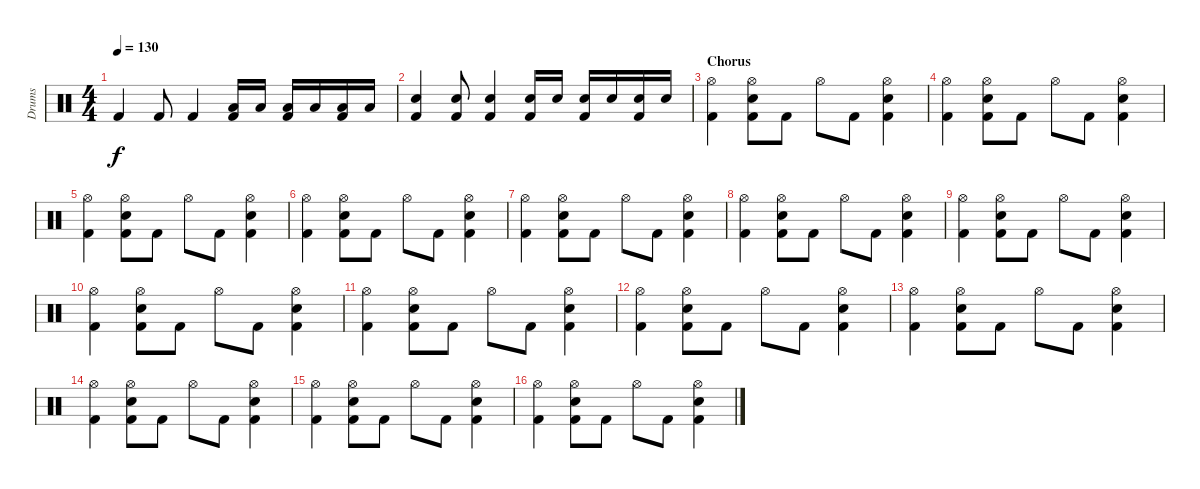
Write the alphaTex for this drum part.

\track ("Drums" "Drums") {instrument percussion}
\staff {score}
\articulation defaults
\ts (4 4)
\tempo 130
\clef neutral
\ks c "Kick (hit) 2".4{dy f} "Kick (hit) 2".8 "Kick (hit) 2".4
("Kick (hit) 2" "Low Tom (hit)").16 "Low Tom (hit)".16 ("Kick (hit) 2" "Low Tom (hit)").16 "Low Tom (hit)".16 ("Kick (hit) 2" "Low Tom (hit)").16 "Low Tom (hit)".16 |
("Kick (hit) 2" "Snare (hit) 2").4 ("Kick (hit) 2" "Snare (hit) 2").8 ("Kick (hit) 2" "Snare (hit) 2").4 ("Kick (hit) 2" "Snare (hit) 2").16 "Snare (hit) 2".16 ("Kick (hit) 2" "Snare (hit) 2").16 "Snare (hit) 2".16 ("Kick (hit) 2" "Snare (hit) 2").16 "Snare (hit) 2".16 |
\section ("" "Chorus")
("Kick (hit) 2" "Hi-Hat (open)").4 ("Kick (hit) 2" "Hi-Hat (open)" "Snare (hit) 2").8 "Kick (hit) 2".8 "Hi-Hat (open)".8 "Kick (hit) 2".8 ("Kick (hit) 2" "Hi-Hat (open)" "Snare (hit) 2").4 |
("Kick (hit) 2" "Hi-Hat (open)").4 ("Kick (hit) 2" "Hi-Hat (open)" "Snare (hit) 2").8 "Kick (hit) 2".8 "Hi-Hat (open)".8 "Kick (hit) 2".8 ("Kick (hit) 2" "Hi-Hat (open)" "Snare (hit) 2").4 |
("Kick (hit) 2" "Hi-Hat (open)").4 ("Kick (hit) 2" "Hi-Hat (open)" "Snare (hit) 2").8 "Kick (hit) 2".8 "Hi-Hat (open)".8 "Kick (hit) 2".8 ("Kick (hit) 2" "Hi-Hat (open)" "Snare (hit) 2").4 |
("Kick (hit) 2" "Hi-Hat (open)").4 ("Kick (hit) 2" "Hi-Hat (open)" "Snare (hit) 2").8 "Kick (hit) 2".8 "Hi-Hat (open)".8 "Kick (hit) 2".8 ("Kick (hit) 2" "Hi-Hat (open)" "Snare (hit) 2").4 |
("Kick (hit) 2" "Hi-Hat (open)").4 ("Kick (hit) 2" "Hi-Hat (open)" "Snare (hit) 2").8 "Kick (hit) 2".8 "Hi-Hat (open)".8 "Kick (hit) 2".8 ("Kick (hit) 2" "Hi-Hat (open)" "Snare (hit) 2").4 |
("Kick (hit) 2" "Hi-Hat (open)").4 ("Kick (hit) 2" "Hi-Hat (open)" "Snare (hit) 2").8 "Kick (hit) 2".8 "Hi-Hat (open)".8 "Kick (hit) 2".8 ("Kick (hit) 2" "Hi-Hat (open)" "Snare (hit) 2").4 |
("Kick (hit) 2" "Hi-Hat (open)").4 ("Kick (hit) 2" "Hi-Hat (open)" "Snare (hit) 2").8 "Kick (hit) 2".8 "Hi-Hat (open)".8 "Kick (hit) 2".8 ("Kick (hit) 2" "Hi-Hat (open)" "Snare (hit) 2").4 |
("Kick (hit) 2" "Hi-Hat (open)").4 ("Kick (hit) 2" "Hi-Hat (open)" "Snare (hit) 2").8 "Kick (hit) 2".8 "Hi-Hat (open)".8 "Kick (hit) 2".8 ("Kick (hit) 2" "Hi-Hat (open)" "Snare (hit) 2").4 |
("Kick (hit) 2" "Hi-Hat (open)").4 ("Kick (hit) 2" "Hi-Hat (open)" "Snare (hit) 2").8 "Kick (hit) 2".8 "Hi-Hat (open)".8 "Kick (hit) 2".8 ("Kick (hit) 2" "Hi-Hat (open)" "Snare (hit) 2").4 |
("Kick (hit) 2" "Hi-Hat (open)").4 ("Kick (hit) 2" "Hi-Hat (open)" "Snare (hit) 2").8 "Kick (hit) 2".8 "Hi-Hat (open)".8 "Kick (hit) 2".8 ("Kick (hit) 2" "Hi-Hat (open)" "Snare (hit) 2").4 |
("Kick (hit) 2" "Hi-Hat (open)").4 ("Kick (hit) 2" "Hi-Hat (open)" "Snare (hit) 2").8 "Kick (hit) 2".8 "Hi-Hat (open)".8 "Kick (hit) 2".8 ("Kick (hit) 2" "Hi-Hat (open)" "Snare (hit) 2").4 |
("Kick (hit) 2" "Hi-Hat (open)").4 ("Kick (hit) 2" "Hi-Hat (open)" "Snare (hit) 2").8 "Kick (hit) 2".8 "Hi-Hat (open)".8 "Kick (hit) 2".8 ("Kick (hit) 2" "Hi-Hat (open)" "Snare (hit) 2").4 |
("Kick (hit) 2" "Hi-Hat (open)").4 ("Kick (hit) 2" "Hi-Hat (open)" "Snare (hit) 2").8 "Kick (hit) 2".8 "Hi-Hat (open)".8 "Kick (hit) 2".8 ("Kick (hit) 2" "Hi-Hat (open)" "Snare (hit) 2").4 |
("Kick (hit) 2" "Hi-Hat (open)").4 ("Kick (hit) 2" "Hi-Hat (open)" "Snare (hit) 2").8 "Kick (hit) 2".8 "Hi-Hat (open)".8 "Kick (hit) 2".8 ("Kick (hit) 2" "Hi-Hat (open)" "Snare (hit) 2").4
